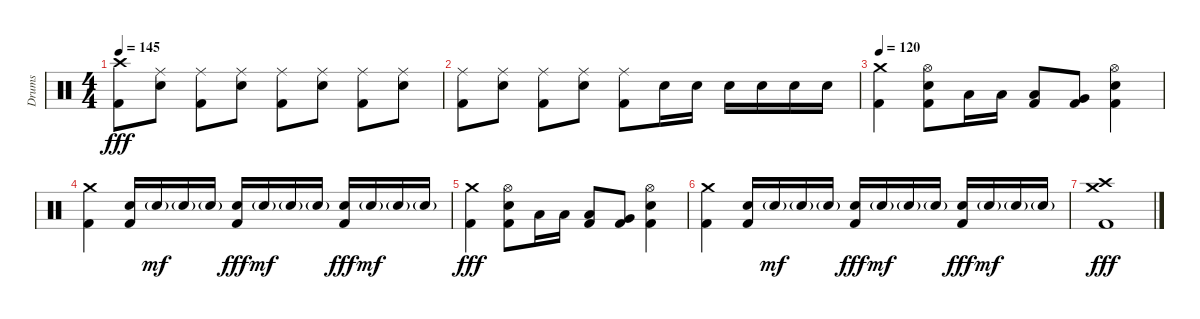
\track ("Drums" "Drums") {instrument percussion}
\staff {score}
\articulation defaults
\ts (4 4)
\tempo 145
\clef neutral
\ks c
("Crash high (hit)" "Kick (hit) 2").8{dy fff} ("Ride (middle)" "Snare (hit) 2").8 ("Ride (middle)" "Kick (hit) 2").8 ("Ride (middle)" "Snare (hit) 2").8 ("Ride (middle)" "Kick (hit) 2").8 ("Ride (middle)" "Snare (hit) 2").8 ("Ride (middle)" "Kick (hit) 2").8 ("Ride (middle)" "Snare (hit) 2").8 |
("Ride (middle)" "Kick (hit) 2").8 ("Ride (middle)" "Snare (hit) 2").8 ("Ride (middle)" "Kick (hit) 2").8 ("Ride (middle)" "Snare (hit) 2").8 ("Ride (middle)" "Kick (hit) 2").8 "Snare (hit) 2".16 "Snare (hit) 2".16 "Snare (hit) 2".16 "Snare (hit) 2".16 "Snare (hit) 2".16 "Snare (hit) 2".16 |
\tempo 120
("Crash medium (hit)" "Kick (hit) 2").4 ("Hi-Hat (open)" "Snare (hit) 2" "Kick (hit) 2").8 "Low Tom (hit)".16 "Low Tom (hit)".16 ("Low Tom (hit)" "Kick (hit) 2").8 ("Very Low Tom (hit)" "Kick (hit) 2").8 ("Hi-Hat (open)" "Snare (hit) 2" "Kick (hit) 2").4 |
("Crash medium (hit)" "Kick (hit) 2").4 ("Snare (hit) 2" "Kick (hit) 2").16 "Snare (hit) 2"{g}.16{dy mf} "Snare (hit) 2"{g}.16 "Snare (hit) 2"{g}.16 ("Snare (hit) 2" "Kick (hit) 2").16{dy fff} "Snare (hit) 2"{g}.16{dy mf} "Snare (hit) 2"{g}.16 "Snare (hit) 2"{g}.16 ("Snare (hit) 2" "Kick (hit) 2").16{dy fff} "Snare (hit) 2"{g}.16{dy mf} "Snare (hit) 2"{g}.16 "Snare (hit) 2"{g}.16 |
("Crash medium (hit)" "Kick (hit) 2").4{dy fff} ("Hi-Hat (open)" "Snare (hit) 2" "Kick (hit) 2").8 "Low Tom (hit)".16 "Low Tom (hit)".16 ("Low Tom (hit)" "Kick (hit) 2").8 ("Very Low Tom (hit)" "Kick (hit) 2").8 ("Hi-Hat (open)" "Snare (hit) 2" "Kick (hit) 2").4 |
("Crash medium (hit)" "Kick (hit) 2").4 ("Snare (hit) 2" "Kick (hit) 2").16 "Snare (hit) 2"{g}.16{dy mf} "Snare (hit) 2"{g}.16 "Snare (hit) 2"{g}.16 ("Snare (hit) 2" "Kick (hit) 2").16{dy fff} "Snare (hit) 2"{g}.16{dy mf} "Snare (hit) 2"{g}.16 "Snare (hit) 2"{g}.16 ("Snare (hit) 2" "Kick (hit) 2").16{dy fff} "Snare (hit) 2"{g}.16{dy mf} "Snare (hit) 2"{g}.16 "Snare (hit) 2"{g}.16 |
("Crash high (hit)" "Crash medium (hit)" "Kick (hit) 2").1{dy fff}
